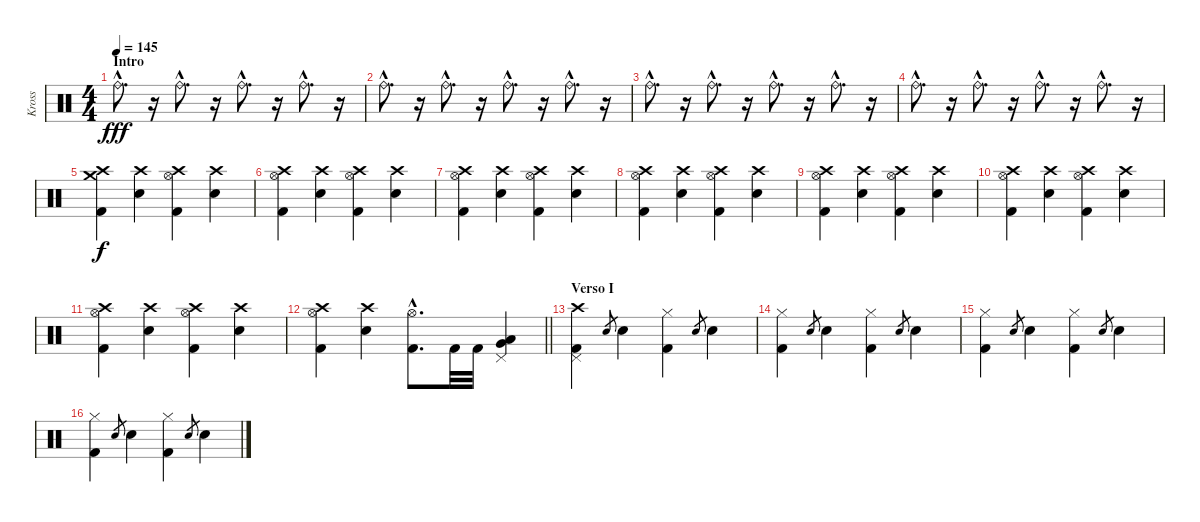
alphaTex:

\track ("Kross" "Kross") {instrument percussion}
\staff {score}
\articulation defaults
\ts (4 4)
\section ("" "Intro")
\tempo 145
\clef neutral
\ks c "Ride (bell)"{hac}.8{d dy fff}
r.16{volume 0} "Ride (bell)"{hac}.8{d volume 16} r.16{volume 0} "Ride (bell)"{hac}.8{d volume 16} r.16{volume 0} "Ride (bell)"{hac}.8{d volume 16} r.16{volume 0} |
"Ride (bell)"{hac}.8{d volume 16} r.16{volume 0} "Ride (bell)"{hac}.8{d volume 16} r.16{volume 0} "Ride (bell)"{hac}.8{d volume 16} r.16{volume 0} "Ride (bell)"{hac}.8{d volume 16} r.16{volume 0} |
"Ride (bell)"{hac}.8{d volume 16} r.16{volume 0} "Ride (bell)"{hac}.8{d volume 16} r.16{volume 0} "Ride (bell)"{hac}.8{d volume 16} r.16{volume 0} "Ride (bell)"{hac}.8{d volume 16} r.16{volume 0} |
"Ride (bell)"{hac}.8{d volume 16} r.16{volume 0} "Ride (bell)"{hac}.8{d volume 16} r.16{volume 0} "Ride (bell)"{hac}.8{d volume 16} r.16{volume 0} "Ride (bell)"{hac}.8{d volume 16} r.16{volume 0} |
("Crash medium (hit)" "Crash high (hit)" "Kick (hit) 2").4{dy f volume 16} ("Crash high (hit)" "Electric Snare (hit)").4 ("Crash high (hit)" "Hi-Hat (open)" "Kick (hit) 2").4 ("Crash high (hit)" "Electric Snare (hit)").4 |
("Crash high (hit)" "Hi-Hat (open)" "Kick (hit) 2").4 ("Crash high (hit)" "Electric Snare (hit)").4 ("Crash high (hit)" "Hi-Hat (open)" "Kick (hit) 2").4 ("Crash high (hit)" "Electric Snare (hit)").4 |
("Crash high (hit)" "Hi-Hat (open)" "Kick (hit) 2").4 ("Crash high (hit)" "Electric Snare (hit)").4 ("Crash high (hit)" "Hi-Hat (open)" "Kick (hit) 2").4 ("Crash high (hit)" "Electric Snare (hit)").4 |
("Crash high (hit)" "Hi-Hat (open)" "Kick (hit) 2").4 ("Crash high (hit)" "Electric Snare (hit)").4 ("Crash high (hit)" "Hi-Hat (open)" "Kick (hit) 2").4 ("Crash high (hit)" "Electric Snare (hit)").4 |
("Crash high (hit)" "Hi-Hat (open)" "Kick (hit) 2").4 ("Crash high (hit)" "Electric Snare (hit)").4 ("Crash high (hit)" "Hi-Hat (open)" "Kick (hit) 2").4 ("Crash high (hit)" "Electric Snare (hit)").4 |
("Crash high (hit)" "Hi-Hat (open)" "Kick (hit) 2").4 ("Crash high (hit)" "Electric Snare (hit)").4 ("Crash high (hit)" "Hi-Hat (open)" "Kick (hit) 2").4 ("Crash high (hit)" "Electric Snare (hit)").4 |
("Crash high (hit)" "Hi-Hat (open)" "Kick (hit) 2").4 ("Crash high (hit)" "Electric Snare (hit)").4 ("Crash high (hit)" "Hi-Hat (open)" "Kick (hit) 2").4 ("Crash high (hit)" "Electric Snare (hit)").4 |
\barLineRight lightlight
("Crash high (hit)" "Hi-Hat (open)" "Kick (hit) 2").4 ("Crash high (hit)" "Electric Snare (hit)").4 ("Hi-Hat (open)"{hac} "Kick (hit) 2"{hac}).8{d} "Kick (hit) 2".32 "Kick (hit) 2".32 ("Pedal Hi-Hat (hit)" "Low Tom (hit)" "Very Low Tom (hit)").4 |
\section ("" "Verso I")
("Crash high (hit)" "Pedal Hi-Hat (hit)" "Kick (hit) 2").4 "Electric Snare (hit)".8{gr} "Electric Snare (hit)".4 ("Hi-Hat (closed)" "Kick (hit) 2").4 "Electric Snare (hit)".8{gr} "Electric Snare (hit)".4 |
("Hi-Hat (closed)" "Kick (hit) 2").4 "Electric Snare (hit)".8{gr} "Electric Snare (hit)".4 ("Hi-Hat (closed)" "Kick (hit) 2").4 "Electric Snare (hit)".8{gr} "Electric Snare (hit)".4 |
("Hi-Hat (closed)" "Kick (hit) 2").4 "Electric Snare (hit)".8{gr} "Electric Snare (hit)".4 ("Hi-Hat (closed)" "Kick (hit) 2").4 "Electric Snare (hit)".8{gr} "Electric Snare (hit)".4 |
("Hi-Hat (closed)" "Kick (hit) 2").4 "Electric Snare (hit)".8{gr} "Electric Snare (hit)".4 ("Hi-Hat (closed)" "Kick (hit) 2").4 "Electric Snare (hit)".8{gr} "Electric Snare (hit)".4
